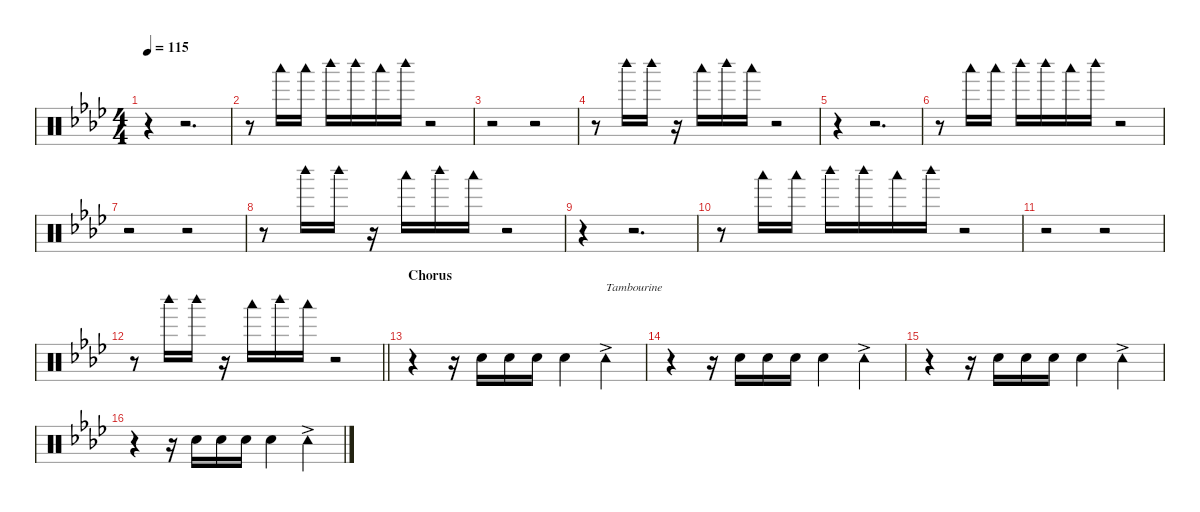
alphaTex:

\defaultSystemsLayout 4
\hideDynamics
\bracketExtendMode nobrackets
\singleTrackTrackNamePolicy hidden
\multiTrackTrackNamePolicy hidden
\firstSystemTrackNameMode fullname
\firstSystemTrackNameOrientation horizontal
\otherSystemsTrackNameOrientation horizontal
\track ("Percussion" "drm.") {instrument percussion}
\staff {score}
\articulation defaults
\ts (4 4)
\tempo 115
\clef neutral
\ks ab
r.4{dy mp beam Down} r.2{d beam Down} |
r.8{beam Down} "Woodblock low (hit)"{acc forcenatural}.16{beam Down} "Woodblock low (hit)"{acc forcenatural}.16{beam Down} "Woodblock high (hit)"{acc forcenatural}.16{beam Down} "Woodblock high (hit)"{acc forcenatural}.16{beam Down} "Woodblock low (hit)"{acc forcenatural}.16{dy f beam Down} "Woodblock high (hit)"{acc forcenatural}.16{dy mp beam Down} r.2{beam Down} |
r.2{beam Down} r.2{beam Down} |
r.8{beam Down} "Woodblock high (hit)"{acc forcenatural}.16{beam Down} "Woodblock high (hit)"{acc forcenatural}.16{beam Down} r.16{beam Down} "Woodblock low (hit)"{acc forcenatural}.16{beam Down} "Woodblock high (hit)"{acc forcenatural}.16{beam Down} "Woodblock low (hit)"{acc forcenatural}.16{beam Down} r.2{beam Down} |
r.4{beam Down} r.2{d beam Down} |
r.8{beam Down} "Woodblock low (hit)"{acc forcenatural}.16{beam Down} "Woodblock low (hit)"{acc forcenatural}.16{beam Down} "Woodblock high (hit)"{acc forcenatural}.16{beam Down} "Woodblock high (hit)"{acc forcenatural}.16{beam Down} "Woodblock low (hit)"{acc forcenatural}.16{dy f beam Down} "Woodblock high (hit)"{acc forcenatural}.16{dy mp beam Down} r.2{beam Down} |
r.2{beam Down} r.2{beam Down} |
r.8{beam Down} "Woodblock high (hit)"{acc forcenatural}.16{beam Down} "Woodblock high (hit)"{acc forcenatural}.16{beam Down} r.16{beam Down} "Woodblock low (hit)"{acc forcenatural}.16{beam Down} "Woodblock high (hit)"{acc forcenatural}.16{beam Down} "Woodblock low (hit)"{acc forcenatural}.16{beam Down} r.2{beam Down} |
r.4{beam Down} r.2{d beam Down} |
r.8{beam Down} "Woodblock low (hit)"{acc forcenatural}.16{beam Down} "Woodblock low (hit)"{acc forcenatural}.16{beam Down} "Woodblock high (hit)"{acc forcenatural}.16{beam Down} "Woodblock high (hit)"{acc forcenatural}.16{beam Down} "Woodblock low (hit)"{acc forcenatural}.16{dy f beam Down} "Woodblock high (hit)"{acc forcenatural}.16{dy mp beam Down} r.2{beam Down} |
r.2{beam Down} r.2{beam Down} |
\barLineRight lightlight
r.8{beam Down} "Woodblock high (hit)"{acc forcenatural}.16{beam Down} "Woodblock high (hit)"{acc forcenatural}.16{beam Down} r.16{beam Down} "Woodblock low (hit)"{acc forcenatural}.16{beam Down} "Woodblock high (hit)"{acc forcenatural}.16{beam Down} "Woodblock low (hit)"{acc forcenatural}.16{beam Down} r.2{beam Down} |
\section ("" "Chorus")
r.4{beam Down} r.16{beam Down} "Snare (hit) 2"{acc forcenatural}.16{dy pp beam Down} "Snare (hit) 2"{acc forcenatural}.16{beam Down} "Snare (hit) 2"{acc forcenatural}.16{beam Down} "Snare (hit) 2"{acc forcenatural}.4{beam Down} "Tambourine (hit)"{ac acc forcenatural}.4{txt "Tambourine" dy f beam Down} |
r.4{beam Down} r.16{beam Down} "Snare (hit) 2"{acc forcenatural}.16{dy pp beam Down} "Snare (hit) 2"{acc forcenatural}.16{beam Down} "Snare (hit) 2"{acc forcenatural}.16{beam Down} "Snare (hit) 2"{acc forcenatural}.4{beam Down} "Tambourine (hit)"{ac acc forcenatural}.4{dy f beam Down} |
r.4{beam Down} r.16{beam Down} "Snare (hit) 2"{acc forcenatural}.16{dy pp beam Down} "Snare (hit) 2"{acc forcenatural}.16{beam Down} "Snare (hit) 2"{acc forcenatural}.16{beam Down} "Snare (hit) 2"{acc forcenatural}.4{beam Down} "Tambourine (hit)"{ac acc forcenatural}.4{dy f beam Down} |
r.4{beam Down} r.16{beam Down} "Snare (hit) 2"{acc forcenatural}.16{dy pp beam Down} "Snare (hit) 2"{acc forcenatural}.16{beam Down} "Snare (hit) 2"{acc forcenatural}.16{beam Down} "Snare (hit) 2"{acc forcenatural}.4{beam Down} "Tambourine (hit)"{ac acc forcenatural}.4{dy f beam Down}
